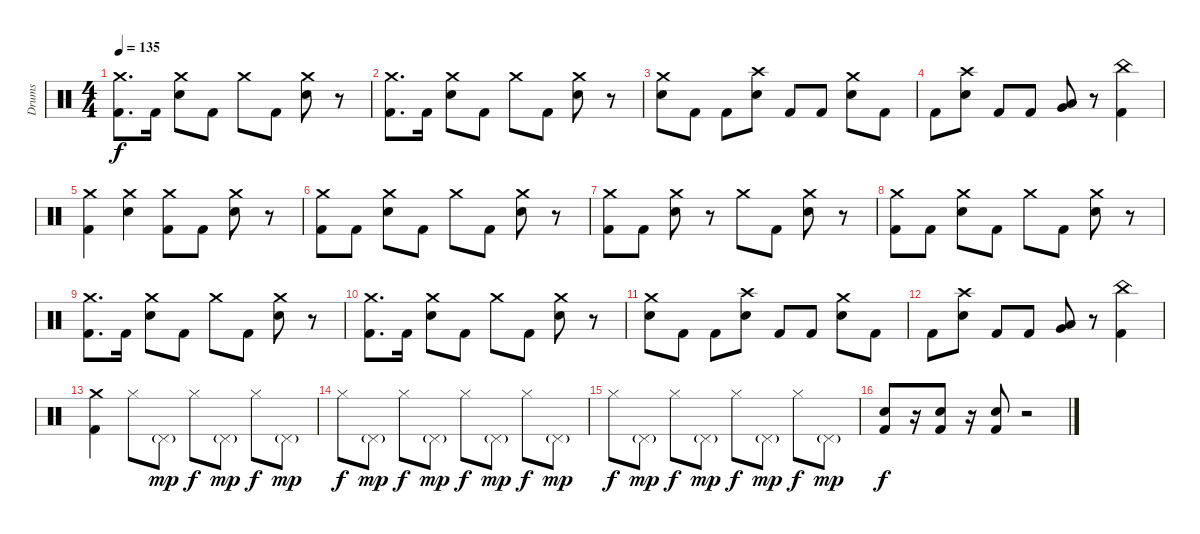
\track ("Drums" "Drums") {instrument percussion}
\staff {score}
\articulation defaults
\ts (4 4)
\tempo 135
\clef neutral
\ks c
("Crash medium (hit)" "Kick (hit) 2").8{d dy f} "Kick (hit) 2".16 ("Crash medium (hit)" "Snare (hit) 2").8 "Kick (hit) 2".8 "Crash medium (hit)".8 "Kick (hit) 2".8 ("Crash medium (hit)" "Snare (hit) 2").8 r.8 |
("Crash medium (hit)" "Kick (hit) 2").8{d} "Kick (hit) 2".16 ("Crash medium (hit)" "Snare (hit) 2").8 "Kick (hit) 2".8 "Crash medium (hit)".8 "Kick (hit) 2".8 ("Crash medium (hit)" "Snare (hit) 2").8 r.8 |
("Crash medium (hit)" "Snare (hit) 2").8 "Kick (hit) 2".8 "Kick (hit) 2".8 ("Crash high (hit)" "Snare (hit) 2").8 "Kick (hit) 2".8 "Kick (hit) 2".8 ("Crash medium (hit)" "Snare (hit) 2").8 "Kick (hit) 2".8 |
"Kick (hit) 2".8 ("Crash high (hit)" "Snare (hit) 2").8 "Kick (hit) 2".8 "Kick (hit) 2".8 ("Very Low Tom (hit)" "Low Tom (hit)").8 r.8 ("China (hit)" "Kick (hit) 2").4 |
("Crash medium (hit)" "Kick (hit) 2").4 ("Crash medium (hit)" "Snare (hit) 2").4 ("Crash medium (hit)" "Kick (hit) 2").8 "Kick (hit) 2".8 ("Crash medium (hit)" "Snare (hit) 2").8 r.8 |
("Crash medium (hit)" "Kick (hit) 2").8 "Kick (hit) 2".8 ("Crash medium (hit)" "Snare (hit) 2").8 "Kick (hit) 2".8 "Crash medium (hit)".8 "Kick (hit) 2".8 ("Crash medium (hit)" "Snare (hit) 2").8 r.8 |
("Crash medium (hit)" "Kick (hit) 2").8 "Kick (hit) 2".8 ("Crash medium (hit)" "Snare (hit) 2").8 r.8 "Crash medium (hit)".8 "Kick (hit) 2".8 ("Crash medium (hit)" "Snare (hit) 2").8 r.8 |
("Crash medium (hit)" "Kick (hit) 2").8 "Kick (hit) 2".8 ("Crash medium (hit)" "Snare (hit) 2").8 "Kick (hit) 2".8 "Crash medium (hit)".8 "Kick (hit) 2".8 ("Crash medium (hit)" "Snare (hit) 2").8 r.8 |
("Crash medium (hit)" "Kick (hit) 2").8{d} "Kick (hit) 2".16 ("Crash medium (hit)" "Snare (hit) 2").8 "Kick (hit) 2".8 "Crash medium (hit)".8 "Kick (hit) 2".8 ("Crash medium (hit)" "Snare (hit) 2").8 r.8 |
("Crash medium (hit)" "Kick (hit) 2").8{d} "Kick (hit) 2".16 ("Crash medium (hit)" "Snare (hit) 2").8 "Kick (hit) 2".8 "Crash medium (hit)".8 "Kick (hit) 2".8 ("Crash medium (hit)" "Snare (hit) 2").8 r.8 |
("Crash medium (hit)" "Snare (hit) 2").8 "Kick (hit) 2".8 "Kick (hit) 2".8 ("Crash high (hit)" "Snare (hit) 2").8 "Kick (hit) 2".8 "Kick (hit) 2".8 ("Crash medium (hit)" "Snare (hit) 2").8 "Kick (hit) 2".8 |
"Kick (hit) 2".8 ("Crash high (hit)" "Snare (hit) 2").8 "Kick (hit) 2".8 "Kick (hit) 2".8 ("Very Low Tom (hit)" "Low Tom (hit)").8 r.8 ("China (hit)" "Kick (hit) 2").4 |
("Crash medium (hit)" "Kick (hit) 2").4 "Hi-Hat (closed)".8 "Pedal Hi-Hat (hit)"{g}.8{dy mp} "Hi-Hat (closed)".8{dy f} "Pedal Hi-Hat (hit)"{g}.8{dy mp} "Hi-Hat (closed)".8{dy f} "Pedal Hi-Hat (hit)"{g}.8{dy mp} |
"Hi-Hat (closed)".8{dy f} "Pedal Hi-Hat (hit)"{g}.8{dy mp} "Hi-Hat (closed)".8{dy f} "Pedal Hi-Hat (hit)"{g}.8{dy mp} "Hi-Hat (closed)".8{dy f} "Pedal Hi-Hat (hit)"{g}.8{dy mp} "Hi-Hat (closed)".8{dy f} "Pedal Hi-Hat (hit)"{g}.8{dy mp} |
"Hi-Hat (closed)".8{dy f} "Pedal Hi-Hat (hit)"{g}.8{dy mp} "Hi-Hat (closed)".8{dy f} "Pedal Hi-Hat (hit)"{g}.8{dy mp} "Hi-Hat (closed)".8{dy f} "Pedal Hi-Hat (hit)"{g}.8{dy mp} "Hi-Hat (closed)".8{dy f} "Pedal Hi-Hat (hit)"{g}.8{dy mp} |
("Snare (hit) 2" "Kick (hit) 2").8{dy f} r.16 ("Snare (hit) 2" "Kick (hit) 2").8 r.16 ("Snare (hit) 2" "Kick (hit) 2").8 r.2
